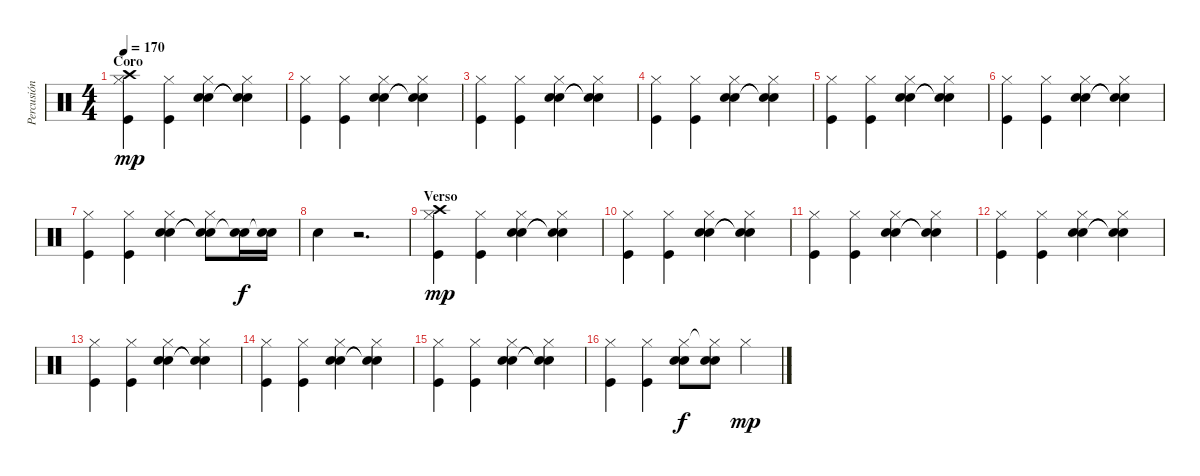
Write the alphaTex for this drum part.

\track ("Percusión" "Percusión") {instrument percussion}
\staff {score}
\articulation defaults
\ts (4 4)
\section ("" "Coro")
\tempo 170
\clef neutral
\ks c
("Kick (hit)" "Crash high (hit)" "Hi-Hat (closed)").4{dy mp} ("Kick (hit)" "Hi-Hat (closed)").4 ("Electric Snare (hit)" "Snare (hit) 2" "Hi-Hat (closed)").4 ("Snare (hit)"{t} "Snare (hit)"{t} "Hi-Hat (closed)").4 |
("Kick (hit)" "Hi-Hat (closed)").4 ("Kick (hit)" "Hi-Hat (closed)").4 ("Electric Snare (hit)" "Snare (hit) 2" "Hi-Hat (closed)").4 ("Snare (hit)"{t} "Snare (hit)"{t} "Hi-Hat (closed)").4 |
("Kick (hit)" "Hi-Hat (closed)").4 ("Kick (hit)" "Hi-Hat (closed)").4 ("Electric Snare (hit)" "Snare (hit) 2" "Hi-Hat (closed)").4 ("Snare (hit)"{t} "Snare (hit)"{t} "Hi-Hat (closed)").4 |
("Kick (hit)" "Hi-Hat (closed)").4 ("Kick (hit)" "Hi-Hat (closed)").4 ("Electric Snare (hit)" "Snare (hit) 2" "Hi-Hat (closed)").4 ("Snare (hit)"{t} "Snare (hit)"{t} "Hi-Hat (closed)").4 |
("Kick (hit)" "Hi-Hat (closed)").4 ("Kick (hit)" "Hi-Hat (closed)").4 ("Electric Snare (hit)" "Snare (hit) 2" "Hi-Hat (closed)").4 ("Snare (hit)"{t} "Snare (hit)"{t} "Hi-Hat (closed)").4 |
("Kick (hit)" "Hi-Hat (closed)").4 ("Kick (hit)" "Hi-Hat (closed)").4 ("Electric Snare (hit)" "Snare (hit) 2" "Hi-Hat (closed)").4 ("Snare (hit)"{t} "Snare (hit)"{t} "Hi-Hat (closed)").4 |
("Kick (hit)" "Hi-Hat (closed)").4 ("Kick (hit)" "Hi-Hat (closed)").4 ("Electric Snare (hit)" "Snare (hit) 2" "Hi-Hat (closed)").4 ("Snare (hit)"{t} "Snare (hit)"{t} "Hi-Hat (closed)").8 ("Electric Snare (hit)" "Snare (hit)"{t}).16{dy f} ("Electric Snare (hit)" "Snare (hit)"{t}).16 |
"Electric Snare (hit)".4 r.2{d} |
\section ("" "Verso")
("Kick (hit)" "Crash high (hit)" "Hi-Hat (closed)").4{dy mp} ("Kick (hit)" "Hi-Hat (closed)").4 ("Electric Snare (hit)" "Snare (hit) 2" "Hi-Hat (closed)").4 ("Snare (hit)"{t} "Snare (hit)"{t} "Hi-Hat (closed)").4 |
("Kick (hit)" "Hi-Hat (closed)").4 ("Kick (hit)" "Hi-Hat (closed)").4 ("Electric Snare (hit)" "Snare (hit) 2" "Hi-Hat (closed)").4 ("Snare (hit)"{t} "Snare (hit)"{t} "Hi-Hat (closed)").4 |
("Kick (hit)" "Hi-Hat (closed)").4 ("Kick (hit)" "Hi-Hat (closed)").4 ("Electric Snare (hit)" "Snare (hit) 2" "Hi-Hat (closed)").4 ("Snare (hit)"{t} "Snare (hit)"{t} "Hi-Hat (closed)").4 |
("Kick (hit)" "Hi-Hat (closed)").4 ("Kick (hit)" "Hi-Hat (closed)").4 ("Electric Snare (hit)" "Snare (hit) 2" "Hi-Hat (closed)").4 ("Snare (hit)"{t} "Snare (hit)"{t} "Hi-Hat (closed)").4 |
("Kick (hit)" "Hi-Hat (closed)").4 ("Kick (hit)" "Hi-Hat (closed)").4 ("Electric Snare (hit)" "Snare (hit) 2" "Hi-Hat (closed)").4 ("Snare (hit)"{t} "Snare (hit)"{t} "Hi-Hat (closed)").4 |
("Kick (hit)" "Hi-Hat (closed)").4 ("Kick (hit)" "Hi-Hat (closed)").4 ("Electric Snare (hit)" "Snare (hit) 2" "Hi-Hat (closed)").4 ("Snare (hit)"{t} "Snare (hit)"{t} "Hi-Hat (closed)").4 |
("Kick (hit)" "Hi-Hat (closed)").4 ("Kick (hit)" "Hi-Hat (closed)").4 ("Electric Snare (hit)" "Snare (hit) 2" "Hi-Hat (closed)").4 ("Snare (hit)"{t} "Snare (hit)"{t} "Hi-Hat (closed)").4 |
("Kick (hit)" "Hi-Hat (closed)").4 ("Kick (hit)" "Hi-Hat (closed)").4 ("Electric Snare (hit)" "Snare (hit) 2" "Hi-Hat (closed)").8{dy f} ("Electric Snare (hit)" "Snare (hit) 2" "Hi-Hat (closed)"{t}).8 "Hi-Hat (closed)".4{dy mp}
